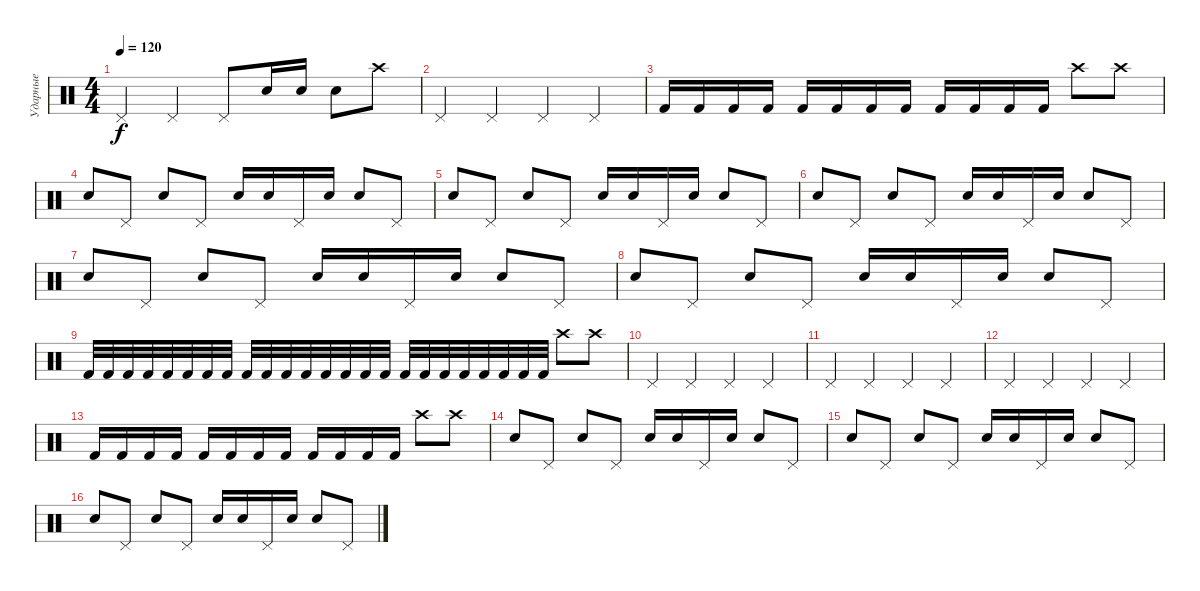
\track ("Ударные" "Ударные") {instrument percussion}
\staff {score}
\articulation defaults
\ts (4 4)
\tempo 120
\clef neutral
\ks c "Pedal Hi-Hat (hit)".4{dy f} "Pedal Hi-Hat (hit)".4 "Pedal Hi-Hat (hit)".8 "Snare (hit) 2".16 "Snare (hit) 2".16 "Snare (hit) 2".8 "Crash high (hit)".8
|
"Pedal Hi-Hat (hit)".4 "Pedal Hi-Hat (hit)".4 "Pedal Hi-Hat (hit)".4 "Pedal Hi-Hat (hit)".4 |
"Kick (hit) 2".16 "Kick (hit) 2".16 "Kick (hit) 2".16 "Kick (hit) 2".16 "Kick (hit) 2".16 "Kick (hit) 2".16 "Kick (hit) 2".16 "Kick (hit) 2".16 "Kick (hit) 2".16 "Kick (hit) 2".16 "Kick (hit) 2".16 "Kick (hit) 2".16 "Crash high (hit)".8 "Crash high (hit)".8 |
"Snare (hit) 2".8 "Pedal Hi-Hat (hit)".8 "Snare (hit) 2".8 "Pedal Hi-Hat (hit)".8 "Snare (hit) 2".16 "Snare (hit) 2".16 "Pedal Hi-Hat (hit)".16 "Snare (hit) 2".16 "Snare (hit) 2".8 "Pedal Hi-Hat (hit)".8 |
"Snare (hit) 2".8 "Pedal Hi-Hat (hit)".8 "Snare (hit) 2".8 "Pedal Hi-Hat (hit)".8 "Snare (hit) 2".16 "Snare (hit) 2".16 "Pedal Hi-Hat (hit)".16 "Snare (hit) 2".16 "Snare (hit) 2".8 "Pedal Hi-Hat (hit)".8 |
"Snare (hit) 2".8 "Pedal Hi-Hat (hit)".8 "Snare (hit) 2".8 "Pedal Hi-Hat (hit)".8 "Snare (hit) 2".16 "Snare (hit) 2".16 "Pedal Hi-Hat (hit)".16 "Snare (hit) 2".16 "Snare (hit) 2".8 "Pedal Hi-Hat (hit)".8 |
"Snare (hit) 2".8 "Pedal Hi-Hat (hit)".8 "Snare (hit) 2".8 "Pedal Hi-Hat (hit)".8 "Snare (hit) 2".16 "Snare (hit) 2".16 "Pedal Hi-Hat (hit)".16 "Snare (hit) 2".16 "Snare (hit) 2".8 "Pedal Hi-Hat (hit)".8 |
"Snare (hit) 2".8 "Pedal Hi-Hat (hit)".8 "Snare (hit) 2".8 "Pedal Hi-Hat (hit)".8 "Snare (hit) 2".16 "Snare (hit) 2".16 "Pedal Hi-Hat (hit)".16 "Snare (hit) 2".16 "Snare (hit) 2".8 "Pedal Hi-Hat (hit)".8 |
"Kick (hit) 2".32 "Kick (hit) 2".32 "Kick (hit) 2".32 "Kick (hit) 2".32 "Kick (hit) 2".32 "Kick (hit) 2".32 "Kick (hit) 2".32 "Kick (hit) 2".32 "Kick (hit) 2".32 "Kick (hit) 2".32 "Kick (hit) 2".32 "Kick (hit) 2".32 "Kick (hit) 2".32 "Kick (hit) 2".32 "Kick (hit) 2".32 "Kick (hit) 2".32 "Kick (hit) 2".32 "Kick (hit) 2".32 "Kick (hit) 2".32 "Kick (hit) 2".32 "Kick (hit) 2".32 "Kick (hit) 2".32 "Kick (hit) 2".32 "Kick (hit) 2".32 "Crash high (hit)".8 "Crash high (hit)".8 |
"Pedal Hi-Hat (hit)".4 "Pedal Hi-Hat (hit)".4 "Pedal Hi-Hat (hit)".4 "Pedal Hi-Hat (hit)".4 |
"Pedal Hi-Hat (hit)".4 "Pedal Hi-Hat (hit)".4 "Pedal Hi-Hat (hit)".4 "Pedal Hi-Hat (hit)".4 |
"Pedal Hi-Hat (hit)".4 "Pedal Hi-Hat (hit)".4 "Pedal Hi-Hat (hit)".4 "Pedal Hi-Hat (hit)".4 |
"Kick (hit) 2".16 "Kick (hit) 2".16 "Kick (hit) 2".16 "Kick (hit) 2".16 "Kick (hit) 2".16 "Kick (hit) 2".16 "Kick (hit) 2".16 "Kick (hit) 2".16 "Kick (hit) 2".16 "Kick (hit) 2".16 "Kick (hit) 2".16 "Kick (hit) 2".16 "Crash high (hit)".8 "Crash high (hit)".8 |
"Snare (hit) 2".8 "Pedal Hi-Hat (hit)".8 "Snare (hit) 2".8 "Pedal Hi-Hat (hit)".8 "Snare (hit) 2".16 "Snare (hit) 2".16 "Pedal Hi-Hat (hit)".16 "Snare (hit) 2".16 "Snare (hit) 2".8 "Pedal Hi-Hat (hit)".8 |
"Snare (hit) 2".8 "Pedal Hi-Hat (hit)".8 "Snare (hit) 2".8 "Pedal Hi-Hat (hit)".8 "Snare (hit) 2".16 "Snare (hit) 2".16 "Pedal Hi-Hat (hit)".16 "Snare (hit) 2".16 "Snare (hit) 2".8 "Pedal Hi-Hat (hit)".8 |
"Snare (hit) 2".8 "Pedal Hi-Hat (hit)".8 "Snare (hit) 2".8 "Pedal Hi-Hat (hit)".8 "Snare (hit) 2".16 "Snare (hit) 2".16 "Pedal Hi-Hat (hit)".16 "Snare (hit) 2".16 "Snare (hit) 2".8 "Pedal Hi-Hat (hit)".8
